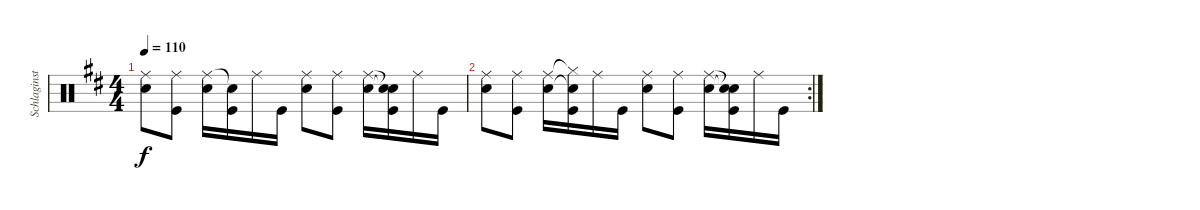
\track ("Schlaginstrumente - Auswahl" "Schlaginst") {instrument percussion}
\staff {score}
\articulation defaults
\ts (4 4)
\tempo 110
\clef neutral
\ks d
("Ride (middle)" "Snare (hit) 2").8{dy f} ("Ride (middle)" "Kick (hit)").8 ("Ride (middle)" "Snare (hit) 2").16 ("Snare (hit)"{t} "Kick (hit)").16 "Ride (middle)".16 "Kick (hit)".16 ("Ride (middle)" "Snare (hit) 2").8 ("Ride (middle)" "Kick (hit)").8 ("Ride (middle)" "Snare (hit) 2").16 ("Snare (hit)"{t} "Snare (hit)"{t} "Kick (hit)").16 "Ride (middle)".16 "Kick (hit)".16 |
\rc 2
("Ride (middle)" "Snare (hit) 2").8 ("Ride (middle)" "Kick (hit)").8 ("Ride (middle)" "Snare (hit) 2").16 ("Hi-Hat (closed)"{t} "Snare (hit)"{t} "Kick (hit)").16 "Ride (middle)".16 "Kick (hit)".16 ("Ride (middle)" "Snare (hit) 2").8 ("Ride (middle)" "Kick (hit)").8 ("Ride (middle)" "Snare (hit) 2").16 ("Snare (hit)"{t} "Snare (hit)"{t} "Kick (hit)").16 "Ride (middle)".16 "Kick (hit)".16
